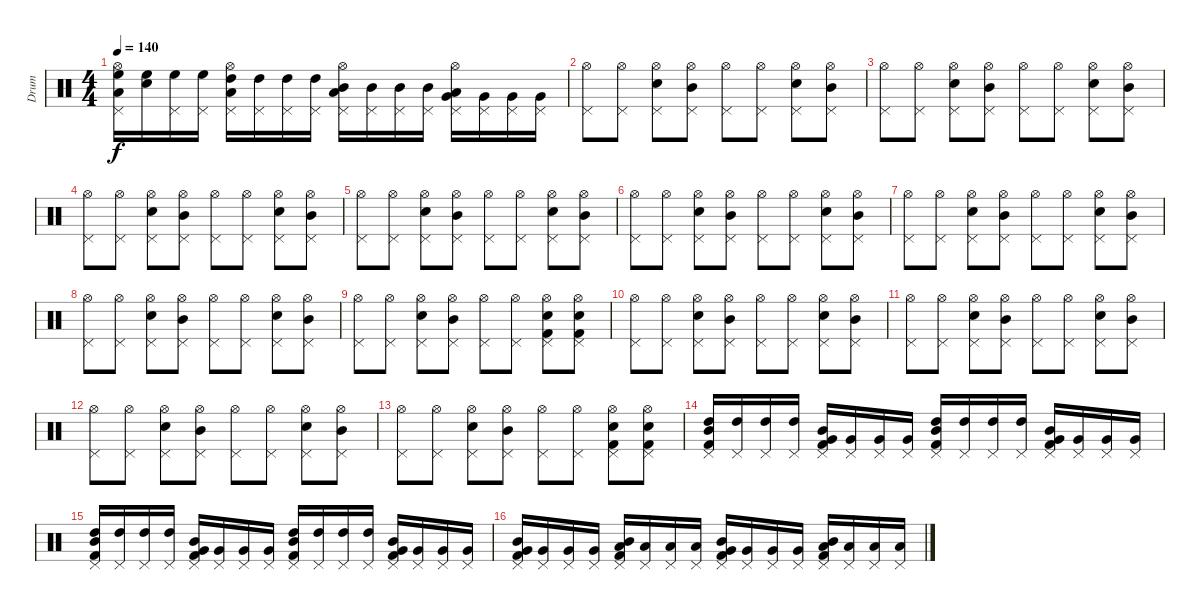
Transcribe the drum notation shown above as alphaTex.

\track ("Drum" "Drum") {instrument percussion}
\staff {score}
\articulation defaults
\ts (4 4)
\tempo 140
\clef neutral
\ks c
("Hi-Hat (open)" "High Floor Tom (hit)" "Low Tom (hit)" "Pedal Hi-Hat (hit)").16{dy f} ("High Floor Tom (hit)" "Snare (hit)").16 ("High Floor Tom (hit)" "Pedal Hi-Hat (hit)").16 ("High Floor Tom (hit)" "Pedal Hi-Hat (hit)").16 ("Hi-Hat (open)" "High Tom (hit)" "Low Tom (hit)" "Pedal Hi-Hat (hit)").16 ("High Tom (hit)" "Pedal Hi-Hat (hit)").16 ("High Tom (hit)" "Pedal Hi-Hat (hit)").16 ("High Tom (hit)" "Pedal Hi-Hat (hit)").16 ("Hi-Hat (open)" "Mid Tom (hit)" "Low Tom (hit)" "Pedal Hi-Hat (hit)").16 ("Mid Tom (hit)" "Pedal Hi-Hat (hit)").16 ("Mid Tom (hit)" "Pedal Hi-Hat (hit)").16 ("Mid Tom (hit)" "Pedal Hi-Hat (hit)").16 ("Hi-Hat (open)" "Very Low Tom (hit)" "Low Tom (hit)" "Pedal Hi-Hat (hit)").16 ("Very Low Tom (hit)" "Pedal Hi-Hat (hit)").16 ("Very Low Tom (hit)" "Pedal Hi-Hat (hit)").16 ("Very Low Tom (hit)" "Pedal Hi-Hat (hit)").16 |
("Hi-Hat (open)" "Pedal Hi-Hat (hit)").8 ("Hi-Hat (open)" "Pedal Hi-Hat (hit)").8 ("Hi-Hat (open)" "Snare (hit) 2" "Pedal Hi-Hat (hit)").8 ("Hi-Hat (open)" "Mid Tom (hit)" "Pedal Hi-Hat (hit)").8 ("Hi-Hat (open)" "Pedal Hi-Hat (hit)").8 ("Hi-Hat (open)" "Pedal Hi-Hat (hit)").8 ("Hi-Hat (open)" "Snare (hit) 2" "Pedal Hi-Hat (hit)").8 ("Hi-Hat (open)" "Mid Tom (hit)" "Pedal Hi-Hat (hit)").8 |
("Hi-Hat (open)" "Pedal Hi-Hat (hit)").8 ("Hi-Hat (open)" "Pedal Hi-Hat (hit)").8 ("Hi-Hat (open)" "Snare (hit) 2" "Pedal Hi-Hat (hit)").8 ("Hi-Hat (open)" "Mid Tom (hit)" "Pedal Hi-Hat (hit)").8 ("Hi-Hat (open)" "Pedal Hi-Hat (hit)").8 ("Hi-Hat (open)" "Pedal Hi-Hat (hit)").8 ("Hi-Hat (open)" "Snare (hit) 2" "Pedal Hi-Hat (hit)").8 ("Hi-Hat (open)" "Mid Tom (hit)" "Pedal Hi-Hat (hit)").8 |
("Hi-Hat (open)" "Pedal Hi-Hat (hit)").8 ("Hi-Hat (open)" "Pedal Hi-Hat (hit)").8 ("Hi-Hat (open)" "Snare (hit) 2" "Pedal Hi-Hat (hit)").8 ("Hi-Hat (open)" "Mid Tom (hit)" "Pedal Hi-Hat (hit)").8 ("Hi-Hat (open)" "Pedal Hi-Hat (hit)").8 ("Hi-Hat (open)" "Pedal Hi-Hat (hit)").8 ("Hi-Hat (open)" "Snare (hit) 2" "Pedal Hi-Hat (hit)").8 ("Hi-Hat (open)" "Mid Tom (hit)" "Pedal Hi-Hat (hit)").8 |
("Hi-Hat (open)" "Pedal Hi-Hat (hit)").8 ("Hi-Hat (open)" "Pedal Hi-Hat (hit)").8 ("Hi-Hat (open)" "Snare (hit) 2" "Pedal Hi-Hat (hit)").8 ("Hi-Hat (open)" "Mid Tom (hit)" "Pedal Hi-Hat (hit)").8 ("Hi-Hat (open)" "Pedal Hi-Hat (hit)").8 ("Hi-Hat (open)" "Pedal Hi-Hat (hit)").8 ("Hi-Hat (open)" "Snare (hit) 2" "Pedal Hi-Hat (hit)").8 ("Hi-Hat (open)" "Mid Tom (hit)" "Pedal Hi-Hat (hit)").8 |
("Hi-Hat (open)" "Pedal Hi-Hat (hit)").8 ("Hi-Hat (open)" "Pedal Hi-Hat (hit)").8 ("Hi-Hat (open)" "Snare (hit) 2" "Pedal Hi-Hat (hit)").8 ("Hi-Hat (open)" "Mid Tom (hit)" "Pedal Hi-Hat (hit)").8 ("Hi-Hat (open)" "Pedal Hi-Hat (hit)").8 ("Hi-Hat (open)" "Pedal Hi-Hat (hit)").8 ("Hi-Hat (open)" "Snare (hit) 2" "Pedal Hi-Hat (hit)").8 ("Hi-Hat (open)" "Mid Tom (hit)" "Pedal Hi-Hat (hit)").8 |
("Hi-Hat (open)" "Pedal Hi-Hat (hit)").8 ("Hi-Hat (open)" "Pedal Hi-Hat (hit)").8 ("Hi-Hat (open)" "Snare (hit) 2" "Pedal Hi-Hat (hit)").8 ("Hi-Hat (open)" "Mid Tom (hit)" "Pedal Hi-Hat (hit)").8 ("Hi-Hat (open)" "Pedal Hi-Hat (hit)").8 ("Hi-Hat (open)" "Pedal Hi-Hat (hit)").8 ("Hi-Hat (open)" "Snare (hit) 2" "Pedal Hi-Hat (hit)").8 ("Hi-Hat (open)" "Mid Tom (hit)" "Pedal Hi-Hat (hit)").8 |
("Hi-Hat (open)" "Pedal Hi-Hat (hit)").8 ("Hi-Hat (open)" "Pedal Hi-Hat (hit)").8 ("Hi-Hat (open)" "Snare (hit) 2" "Pedal Hi-Hat (hit)").8 ("Hi-Hat (open)" "Mid Tom (hit)" "Pedal Hi-Hat (hit)").8 ("Hi-Hat (open)" "Pedal Hi-Hat (hit)").8 ("Hi-Hat (open)" "Pedal Hi-Hat (hit)").8 ("Hi-Hat (open)" "Snare (hit) 2" "Pedal Hi-Hat (hit)").8 ("Hi-Hat (open)" "Mid Tom (hit)" "Pedal Hi-Hat (hit)").8 |
("Hi-Hat (open)" "Pedal Hi-Hat (hit)").8 ("Hi-Hat (open)" "Pedal Hi-Hat (hit)").8 ("Hi-Hat (open)" "Snare (hit) 2" "Pedal Hi-Hat (hit)").8 ("Hi-Hat (open)" "Mid Tom (hit)" "Pedal Hi-Hat (hit)").8 ("Hi-Hat (open)" "Pedal Hi-Hat (hit)").8 ("Hi-Hat (open)" "Pedal Hi-Hat (hit)").8 ("Hi-Hat (open)" "Snare (hit) 2" "Kick (hit) 2" "Pedal Hi-Hat (hit)").8 ("Hi-Hat (open)" "Snare (hit) 2" "Kick (hit) 2" "Pedal Hi-Hat (hit)").8 |
("Hi-Hat (open)" "Pedal Hi-Hat (hit)").8 ("Hi-Hat (open)" "Pedal Hi-Hat (hit)").8 ("Hi-Hat (open)" "Snare (hit) 2" "Pedal Hi-Hat (hit)").8 ("Hi-Hat (open)" "Mid Tom (hit)" "Pedal Hi-Hat (hit)").8 ("Hi-Hat (open)" "Pedal Hi-Hat (hit)").8 ("Hi-Hat (open)" "Pedal Hi-Hat (hit)").8 ("Hi-Hat (open)" "Snare (hit) 2" "Pedal Hi-Hat (hit)").8 ("Hi-Hat (open)" "Mid Tom (hit)" "Pedal Hi-Hat (hit)").8 |
("Hi-Hat (open)" "Pedal Hi-Hat (hit)").8 ("Hi-Hat (open)" "Pedal Hi-Hat (hit)").8 ("Hi-Hat (open)" "Snare (hit) 2" "Pedal Hi-Hat (hit)").8 ("Hi-Hat (open)" "Mid Tom (hit)" "Pedal Hi-Hat (hit)").8 ("Hi-Hat (open)" "Pedal Hi-Hat (hit)").8 ("Hi-Hat (open)" "Pedal Hi-Hat (hit)").8 ("Hi-Hat (open)" "Snare (hit) 2" "Pedal Hi-Hat (hit)").8 ("Hi-Hat (open)" "Mid Tom (hit)" "Pedal Hi-Hat (hit)").8 |
("Hi-Hat (open)" "Pedal Hi-Hat (hit)").8 ("Hi-Hat (open)" "Pedal Hi-Hat (hit)").8 ("Hi-Hat (open)" "Snare (hit) 2" "Pedal Hi-Hat (hit)").8 ("Hi-Hat (open)" "Mid Tom (hit)" "Pedal Hi-Hat (hit)").8 ("Hi-Hat (open)" "Pedal Hi-Hat (hit)").8 ("Hi-Hat (open)" "Pedal Hi-Hat (hit)").8 ("Hi-Hat (open)" "Snare (hit) 2" "Pedal Hi-Hat (hit)").8 ("Hi-Hat (open)" "Mid Tom (hit)" "Pedal Hi-Hat (hit)").8 |
("Hi-Hat (open)" "Pedal Hi-Hat (hit)").8 ("Hi-Hat (open)" "Pedal Hi-Hat (hit)").8 ("Hi-Hat (open)" "Snare (hit) 2" "Pedal Hi-Hat (hit)").8 ("Hi-Hat (open)" "Mid Tom (hit)" "Pedal Hi-Hat (hit)").8 ("Hi-Hat (open)" "Pedal Hi-Hat (hit)").8 ("Hi-Hat (open)" "Pedal Hi-Hat (hit)").8 ("Hi-Hat (open)" "Snare (hit) 2" "Kick (hit) 2" "Pedal Hi-Hat (hit)").8 ("Hi-Hat (open)" "Snare (hit) 2" "Kick (hit) 2" "Pedal Hi-Hat (hit)").8 |
("High Tom (hit)" "Mid Tom (hit)" "Kick (hit) 2" "Pedal Hi-Hat (hit)").16 ("High Tom (hit)" "Pedal Hi-Hat (hit)").16 ("High Tom (hit)" "Pedal Hi-Hat (hit)").16 ("High Tom (hit)" "Pedal Hi-Hat (hit)").16 ("Very Low Tom (hit)" "Mid Tom (hit)" "Kick (hit) 2" "Pedal Hi-Hat (hit)").16 ("Very Low Tom (hit)" "Pedal Hi-Hat (hit)").16 ("Very Low Tom (hit)" "Pedal Hi-Hat (hit)").16 ("Very Low Tom (hit)" "Pedal Hi-Hat (hit)").16 ("High Tom (hit)" "Mid Tom (hit)" "Kick (hit) 2" "Pedal Hi-Hat (hit)").16 ("High Tom (hit)" "Pedal Hi-Hat (hit)").16 ("High Tom (hit)" "Pedal Hi-Hat (hit)").16 ("High Tom (hit)" "Pedal Hi-Hat (hit)").16 ("Very Low Tom (hit)" "Mid Tom (hit)" "Kick (hit) 2" "Pedal Hi-Hat (hit)").16 ("Very Low Tom (hit)" "Pedal Hi-Hat (hit)").16 ("Very Low Tom (hit)" "Pedal Hi-Hat (hit)").16 ("Very Low Tom (hit)" "Pedal Hi-Hat (hit)").16 |
("High Tom (hit)" "Mid Tom (hit)" "Kick (hit) 2" "Pedal Hi-Hat (hit)").16 ("High Tom (hit)" "Pedal Hi-Hat (hit)").16 ("High Tom (hit)" "Pedal Hi-Hat (hit)").16 ("High Tom (hit)" "Pedal Hi-Hat (hit)").16 ("Very Low Tom (hit)" "Mid Tom (hit)" "Kick (hit) 2" "Pedal Hi-Hat (hit)").16 ("Very Low Tom (hit)" "Pedal Hi-Hat (hit)").16 ("Very Low Tom (hit)" "Pedal Hi-Hat (hit)").16 ("Very Low Tom (hit)" "Pedal Hi-Hat (hit)").16 ("High Tom (hit)" "Mid Tom (hit)" "Kick (hit) 2" "Pedal Hi-Hat (hit)").16 ("High Tom (hit)" "Pedal Hi-Hat (hit)").16 ("High Tom (hit)" "Pedal Hi-Hat (hit)").16 ("High Tom (hit)" "Pedal Hi-Hat (hit)").16 ("Very Low Tom (hit)" "Mid Tom (hit)" "Kick (hit) 2" "Pedal Hi-Hat (hit)").16 ("Very Low Tom (hit)" "Pedal Hi-Hat (hit)").16 ("Very Low Tom (hit)" "Pedal Hi-Hat (hit)").16 ("Very Low Tom (hit)" "Pedal Hi-Hat (hit)").16 |
("Very Low Tom (hit)" "Mid Tom (hit)" "Kick (hit) 2" "Pedal Hi-Hat (hit)").16 ("Very Low Tom (hit)" "Pedal Hi-Hat (hit)").16 ("Very Low Tom (hit)" "Pedal Hi-Hat (hit)").16 ("Very Low Tom (hit)" "Pedal Hi-Hat (hit)").16 ("Low Tom (hit)" "Mid Tom (hit)" "Kick (hit) 2" "Pedal Hi-Hat (hit)").16 ("Low Tom (hit)" "Pedal Hi-Hat (hit)").16 ("Low Tom (hit)" "Pedal Hi-Hat (hit)").16 ("Low Tom (hit)" "Pedal Hi-Hat (hit)").16 ("Very Low Tom (hit)" "Mid Tom (hit)" "Kick (hit) 2" "Pedal Hi-Hat (hit)").16 ("Very Low Tom (hit)" "Pedal Hi-Hat (hit)").16 ("Very Low Tom (hit)" "Pedal Hi-Hat (hit)").16 ("Very Low Tom (hit)" "Pedal Hi-Hat (hit)").16 ("Low Tom (hit)" "Mid Tom (hit)" "Kick (hit) 2" "Pedal Hi-Hat (hit)").16 ("Low Tom (hit)" "Pedal Hi-Hat (hit)").16 ("Low Tom (hit)" "Pedal Hi-Hat (hit)").16 ("Low Tom (hit)" "Pedal Hi-Hat (hit)").16
